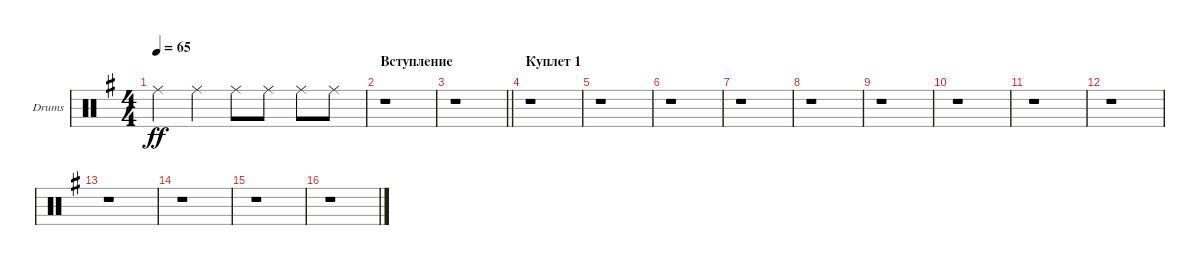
\bracketExtendMode groupsimilarinstruments
\firstSystemTrackNameOrientation horizontal
\otherSystemsTrackNameOrientation horizontal
\track ("Барабаны" "Drums") {instrument percussion}
\staff {score}
\articulation defaults
\ts (4 4)
\beaming (8 2 2 2 2)
\tempo 65
\clef neutral
\ks g "Ride (middle)".4{dy ff} "Ride (middle)".4 "Ride (middle)".8 "Ride (middle)".8 "Ride (middle)".8 "Ride (middle)".8
|
\section ("" "Вступление")
r.1 |
\barLineRight lightlight
r.1 |
\section ("" "Куплет 1")
r.1 |
r.1 |
r.1 |
r.1 |
r.1 |
r.1 |
r.1 |
r.1 |
r.1 |
r.1 |
r.1 |
r.1 |
r.1
